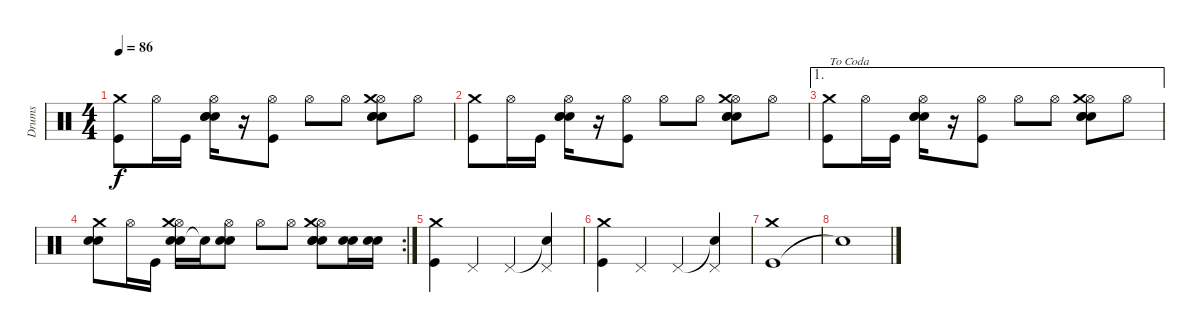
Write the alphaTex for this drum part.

\track ("Drums" "Drums") {instrument percussion}
\staff {score}
\articulation defaults
\ts (4 4)
\tempo 86
\clef neutral
\ks c
("Kick (hit)" "Crash medium (hit)").8{dy f} "Hi-Hat (open)".16 "Kick (hit)".16 ("Electric Snare (hit)" "Hi-Hat (open)" "Electric Snare (hit)" "Electric Snare (hit)").16 r.16 ("Kick (hit)" "Hi-Hat (open)").8 "Hi-Hat (open)".8 "Hi-Hat (open)".8 ("Electric Snare (hit)" "Hi-Hat (open)" "Electric Snare (hit)" "Electric Snare (hit)" "Crash medium (hit)").8 "Hi-Hat (open)".8 |
("Kick (hit)" "Crash medium (hit)").8 "Hi-Hat (open)".16 "Kick (hit)".16 ("Electric Snare (hit)" "Hi-Hat (open)" "Electric Snare (hit)" "Electric Snare (hit)").16 r.16 ("Kick (hit)" "Hi-Hat (open)").8 "Hi-Hat (open)".8 "Hi-Hat (open)".8 ("Electric Snare (hit)" "Hi-Hat (open)" "Electric Snare (hit)" "Electric Snare (hit)" "Crash medium (hit)").8 "Hi-Hat (open)".8 |
\ae 1
("Kick (hit)" "Crash medium (hit)").8{txt "To Coda"} "Hi-Hat (open)".16 "Kick (hit)".16 ("Electric Snare (hit)" "Hi-Hat (open)" "Electric Snare (hit)" "Electric Snare (hit)").16 r.16 ("Kick (hit)" "Hi-Hat (open)").8 "Hi-Hat (open)".8 "Hi-Hat (open)".8 ("Electric Snare (hit)" "Hi-Hat (open)" "Electric Snare (hit)" "Electric Snare (hit)" "Crash medium (hit)").8 "Hi-Hat (open)".8 |
\rc 2
("Electric Snare (hit)" "Crash medium (hit)" "Electric Snare (hit)").8 "Hi-Hat (open)".16 "Kick (hit)".16 ("Electric Snare (hit)" "Hi-Hat (open)" "Crash medium (hit)" "Electric Snare (hit)").16 "Snare (hit)"{t}.16 ("Electric Snare (hit)" "Hi-Hat (open)" "Electric Snare (hit)").8 "Hi-Hat (open)".8 "Hi-Hat (open)".8 ("Electric Snare (hit)" "Hi-Hat (open)" "Electric Snare (hit)" "Electric Snare (hit)" "Crash medium (hit)").8 ("Electric Snare (hit)" "Electric Snare (hit)").16 ("Electric Snare (hit)" "Electric Snare (hit)").16 |
("Kick (hit)" "Crash medium (hit)").4 "Pedal Hi-Hat (hit)".4 "Pedal Hi-Hat (hit)".4 ("Snare (hit)"{t} "Pedal Hi-Hat (hit)").4 |
("Kick (hit)" "Crash medium (hit)").4 "Pedal Hi-Hat (hit)".4 "Pedal Hi-Hat (hit)".4 ("Snare (hit)"{t} "Pedal Hi-Hat (hit)").4 |
("Kick (hit)" "Crash medium (hit)").1 |
"Snare (hit)"{t}.1
